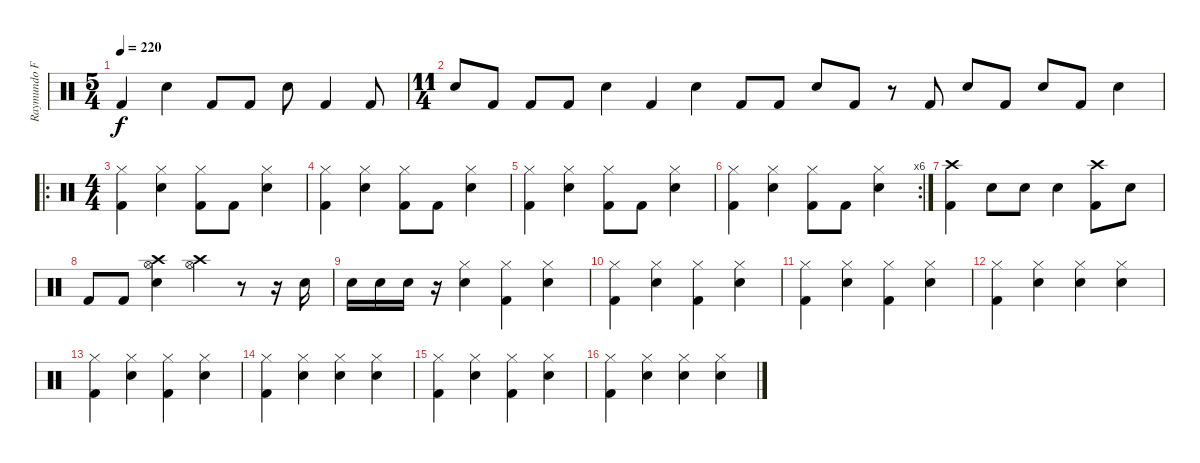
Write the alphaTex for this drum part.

\track ("Raymundo Fajaro" "Raymundo F") {instrument percussion}
\staff {score}
\articulation defaults
\ts (5 4)
\tempo 220
\clef neutral
\ks c "Kick (hit) 2".4{dy f} "Electric Snare (hit)".4 "Kick (hit) 2".8 "Kick (hit) 2".8 "Electric Snare (hit)".8 "Kick (hit) 2".4 "Kick (hit) 2".8
|
\ts (11 4)
"Electric Snare (hit)".8 "Kick (hit) 2".8 "Kick (hit) 2".8 "Kick (hit) 2".8 "Electric Snare (hit)".4 "Kick (hit) 2".4 "Electric Snare (hit)".4 "Kick (hit) 2".8 "Kick (hit) 2".8 "Electric Snare (hit)".8 "Kick (hit) 2".8 r.8 "Kick (hit) 2".8 "Electric Snare (hit)".8 "Kick (hit) 2".8 "Electric Snare (hit)".8 "Kick (hit) 2".8 "Electric Snare (hit)".4 |
\ro
\ts (4 4)
("Kick (hit) 2" "Hi-Hat (closed)").4 ("Electric Snare (hit)" "Hi-Hat (closed)").4 ("Kick (hit) 2" "Hi-Hat (closed)").8 "Kick (hit) 2".8 ("Electric Snare (hit)" "Hi-Hat (closed)").4 |
("Kick (hit) 2" "Hi-Hat (closed)").4 ("Electric Snare (hit)" "Hi-Hat (closed)").4 ("Kick (hit) 2" "Hi-Hat (closed)").8 "Kick (hit) 2".8 ("Electric Snare (hit)" "Hi-Hat (closed)").4 |
("Kick (hit) 2" "Hi-Hat (closed)").4 ("Electric Snare (hit)" "Hi-Hat (closed)").4 ("Kick (hit) 2" "Hi-Hat (closed)").8 "Kick (hit) 2".8 ("Electric Snare (hit)" "Hi-Hat (closed)").4 |
\rc 6
("Kick (hit) 2" "Hi-Hat (closed)").4 ("Electric Snare (hit)" "Hi-Hat (closed)").4 ("Kick (hit) 2" "Hi-Hat (closed)").8 "Kick (hit) 2".8 ("Electric Snare (hit)" "Hi-Hat (closed)").4 |
("Kick (hit) 2" "Crash high (hit)").4 "Electric Snare (hit)".8 "Electric Snare (hit)".8 "Electric Snare (hit)".4 ("Kick (hit) 2" "Crash high (hit)").8 "Electric Snare (hit)".8 |
"Kick (hit) 2".8 "Kick (hit) 2".8 ("Electric Snare (hit)" "Crash high (hit)" "Hi-Hat (open)").4 ("Crash high (hit)" "Hi-Hat (open)").4 r.8 r.16 "Electric Snare (hit)".16 |
"Electric Snare (hit)".16 "Electric Snare (hit)".16 "Electric Snare (hit)".16 r.16 ("Electric Snare (hit)" "Hi-Hat (closed)").4 ("Kick (hit) 2" "Hi-Hat (closed)").4 ("Electric Snare (hit)" "Hi-Hat (closed)").4 |
("Kick (hit) 2" "Hi-Hat (closed)").4 ("Electric Snare (hit)" "Hi-Hat (closed)").4 ("Kick (hit) 2" "Hi-Hat (closed)").4 ("Electric Snare (hit)" "Hi-Hat (closed)").4 |
("Kick (hit) 2" "Hi-Hat (closed)").4 ("Electric Snare (hit)" "Hi-Hat (closed)").4 ("Kick (hit) 2" "Hi-Hat (closed)").4 ("Electric Snare (hit)" "Hi-Hat (closed)").4 |
("Kick (hit) 2" "Hi-Hat (closed)").4 ("Electric Snare (hit)" "Hi-Hat (closed)").4 ("Electric Snare (hit)" "Hi-Hat (closed)").4 ("Electric Snare (hit)" "Hi-Hat (closed)").4 |
("Kick (hit) 2" "Hi-Hat (closed)").4 ("Electric Snare (hit)" "Hi-Hat (closed)").4 ("Kick (hit) 2" "Hi-Hat (closed)").4 ("Electric Snare (hit)" "Hi-Hat (closed)").4 |
("Kick (hit) 2" "Hi-Hat (closed)").4 ("Electric Snare (hit)" "Hi-Hat (closed)").4 ("Electric Snare (hit)" "Hi-Hat (closed)").4 ("Electric Snare (hit)" "Hi-Hat (closed)").4 |
("Kick (hit) 2" "Hi-Hat (closed)").4 ("Electric Snare (hit)" "Hi-Hat (closed)").4 ("Kick (hit) 2" "Hi-Hat (closed)").4 ("Electric Snare (hit)" "Hi-Hat (closed)").4 |
("Kick (hit) 2" "Hi-Hat (closed)").4 ("Electric Snare (hit)" "Hi-Hat (closed)").4 ("Electric Snare (hit)" "Hi-Hat (closed)").4 ("Electric Snare (hit)" "Hi-Hat (closed)").4
